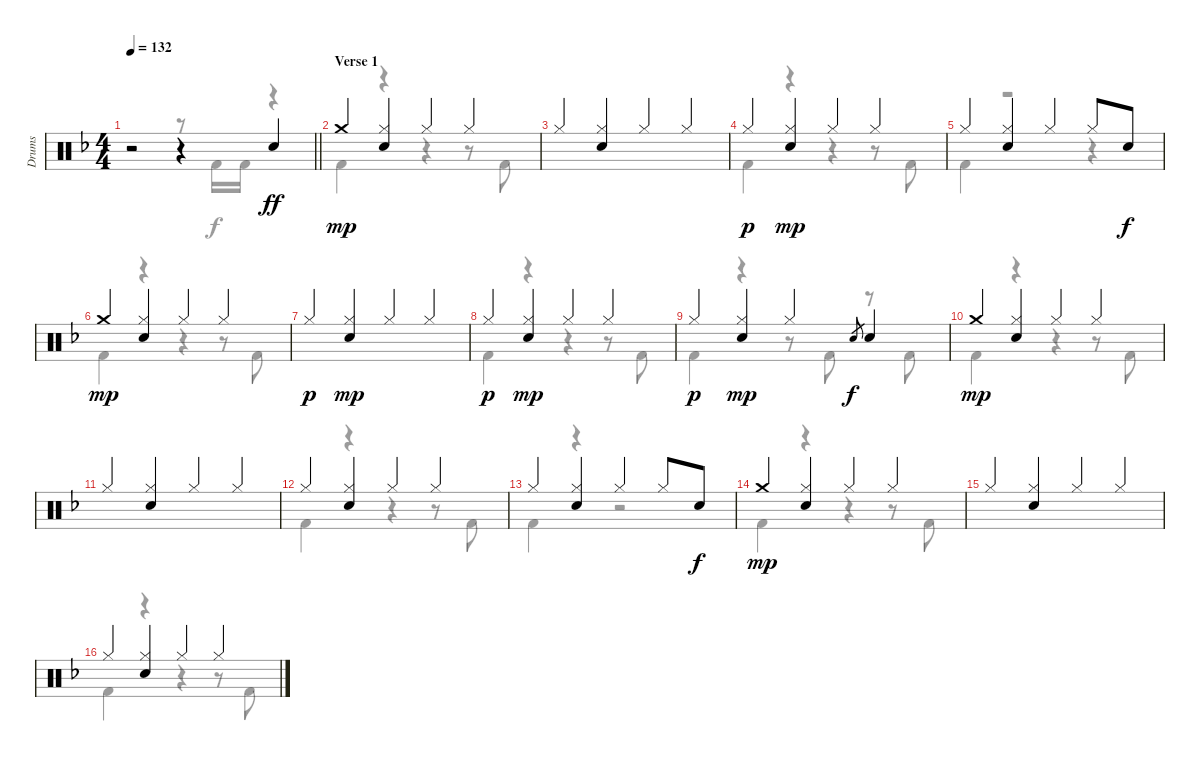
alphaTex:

\track ("Drums" "Drums") {instrument percussion}
\staff {score}
\articulation defaults
\voice
\ts (4 4)
\tempo 132
\clef neutral
\barLineRight lightlight
\ks f
r.2{dy p} r.4 "Electric Snare (hit)".4{dy ff} |
\section ("" "Verse 1")
"Crash medium (hit)".4{dy mp} ("Hi-Hat (closed)" "Electric Snare (hit)").4 "Hi-Hat (closed)".4 "Hi-Hat (closed)".4 |
"Hi-Hat (closed)".4{beam Up} ("Hi-Hat (closed)" "Electric Snare (hit)").4{beam Up} "Hi-Hat (closed)".4{beam Up} "Hi-Hat (closed)".4{beam Up} |
"Hi-Hat (closed)".4{dy p} ("Hi-Hat (closed)" "Electric Snare (hit)").4{dy mp} "Hi-Hat (closed)".4 "Hi-Hat (closed)".4 |
"Hi-Hat (closed)".4 ("Hi-Hat (closed)" "Electric Snare (hit)").4 "Hi-Hat (closed)".4 "Hi-Hat (closed)".8 "Electric Snare (hit)".8{dy f} |
"Crash medium (hit)".4{dy mp} ("Hi-Hat (closed)" "Electric Snare (hit)").4 "Hi-Hat (closed)".4 "Hi-Hat (closed)".4 |
"Hi-Hat (closed)".4{dy p beam Up} ("Hi-Hat (closed)" "Electric Snare (hit)").4{dy mp beam Up} "Hi-Hat (closed)".4{beam Up} "Hi-Hat (closed)".4{beam Up} |
"Hi-Hat (closed)".4{dy p} ("Hi-Hat (closed)" "Electric Snare (hit)").4{dy mp} "Hi-Hat (closed)".4 "Hi-Hat (closed)".4 |
"Hi-Hat (closed)".4{dy p} ("Hi-Hat (closed)" "Electric Snare (hit)").4{dy mp} "Hi-Hat (closed)".4 "Electric Snare (hit)".8{gr dy f} "Electric Snare (hit)".4 |
"Crash medium (hit)".4{dy mp} ("Hi-Hat (closed)" "Electric Snare (hit)").4 "Hi-Hat (closed)".4 "Hi-Hat (closed)".4 |
"Hi-Hat (closed)".4{beam Up} ("Hi-Hat (closed)" "Electric Snare (hit)").4{beam Up} "Hi-Hat (closed)".4{beam Up} "Hi-Hat (closed)".4{beam Up} |
"Hi-Hat (closed)".4 ("Hi-Hat (closed)" "Electric Snare (hit)").4 "Hi-Hat (closed)".4 "Hi-Hat (closed)".4 |
"Hi-Hat (closed)".4 ("Hi-Hat (closed)" "Electric Snare (hit)").4 "Hi-Hat (closed)".4 "Hi-Hat (closed)".8 "Electric Snare (hit)".8{dy f} |
"Crash medium (hit)".4{dy mp} ("Hi-Hat (closed)" "Electric Snare (hit)").4 "Hi-Hat (closed)".4 "Hi-Hat (closed)".4 |
"Hi-Hat (closed)".4{beam Up} ("Hi-Hat (closed)" "Electric Snare (hit)").4{beam Up} "Hi-Hat (closed)".4{beam Up} "Hi-Hat (closed)".4{beam Up} |
"Hi-Hat (closed)".4 ("Hi-Hat (closed)" "Electric Snare (hit)").4 "Hi-Hat (closed)".4 "Hi-Hat (closed)".4
\voice
\clef neutral
\ottava regular
\simile none
\barLineRight lightlight
\ks f
r.2{dy f} r.8 "Kick (hit) 2".16 "Kick (hit) 2".16 r.4 |
"Kick (hit) 2".4 r.4 r.4 r.8 "Kick (hit) 2".8 |
|
"Kick (hit) 2".4 r.4 r.4 r.8 "Kick (hit) 2".8 |
"Kick (hit) 2".4 r.2 r.4 |
"Kick (hit) 2".4 r.4 r.4 r.8 "Kick (hit) 2".8 |
|
"Kick (hit) 2".4 r.4 r.4 r.8 "Kick (hit) 2".8 |
"Kick (hit) 2".4 r.4 r.8 "Kick (hit) 2".8 r.8 "Kick (hit) 2".8 |
"Kick (hit) 2".4 r.4 r.4 r.8 "Kick (hit) 2".8 |
|
"Kick (hit) 2".4 r.4 r.4 r.8 "Kick (hit) 2".8 |
"Kick (hit) 2".4 r.4 r.2 |
"Kick (hit) 2".4 r.4 r.4 r.8 "Kick (hit) 2".8 |
|
"Kick (hit) 2".4 r.4 r.4 r.8 "Kick (hit) 2".8
